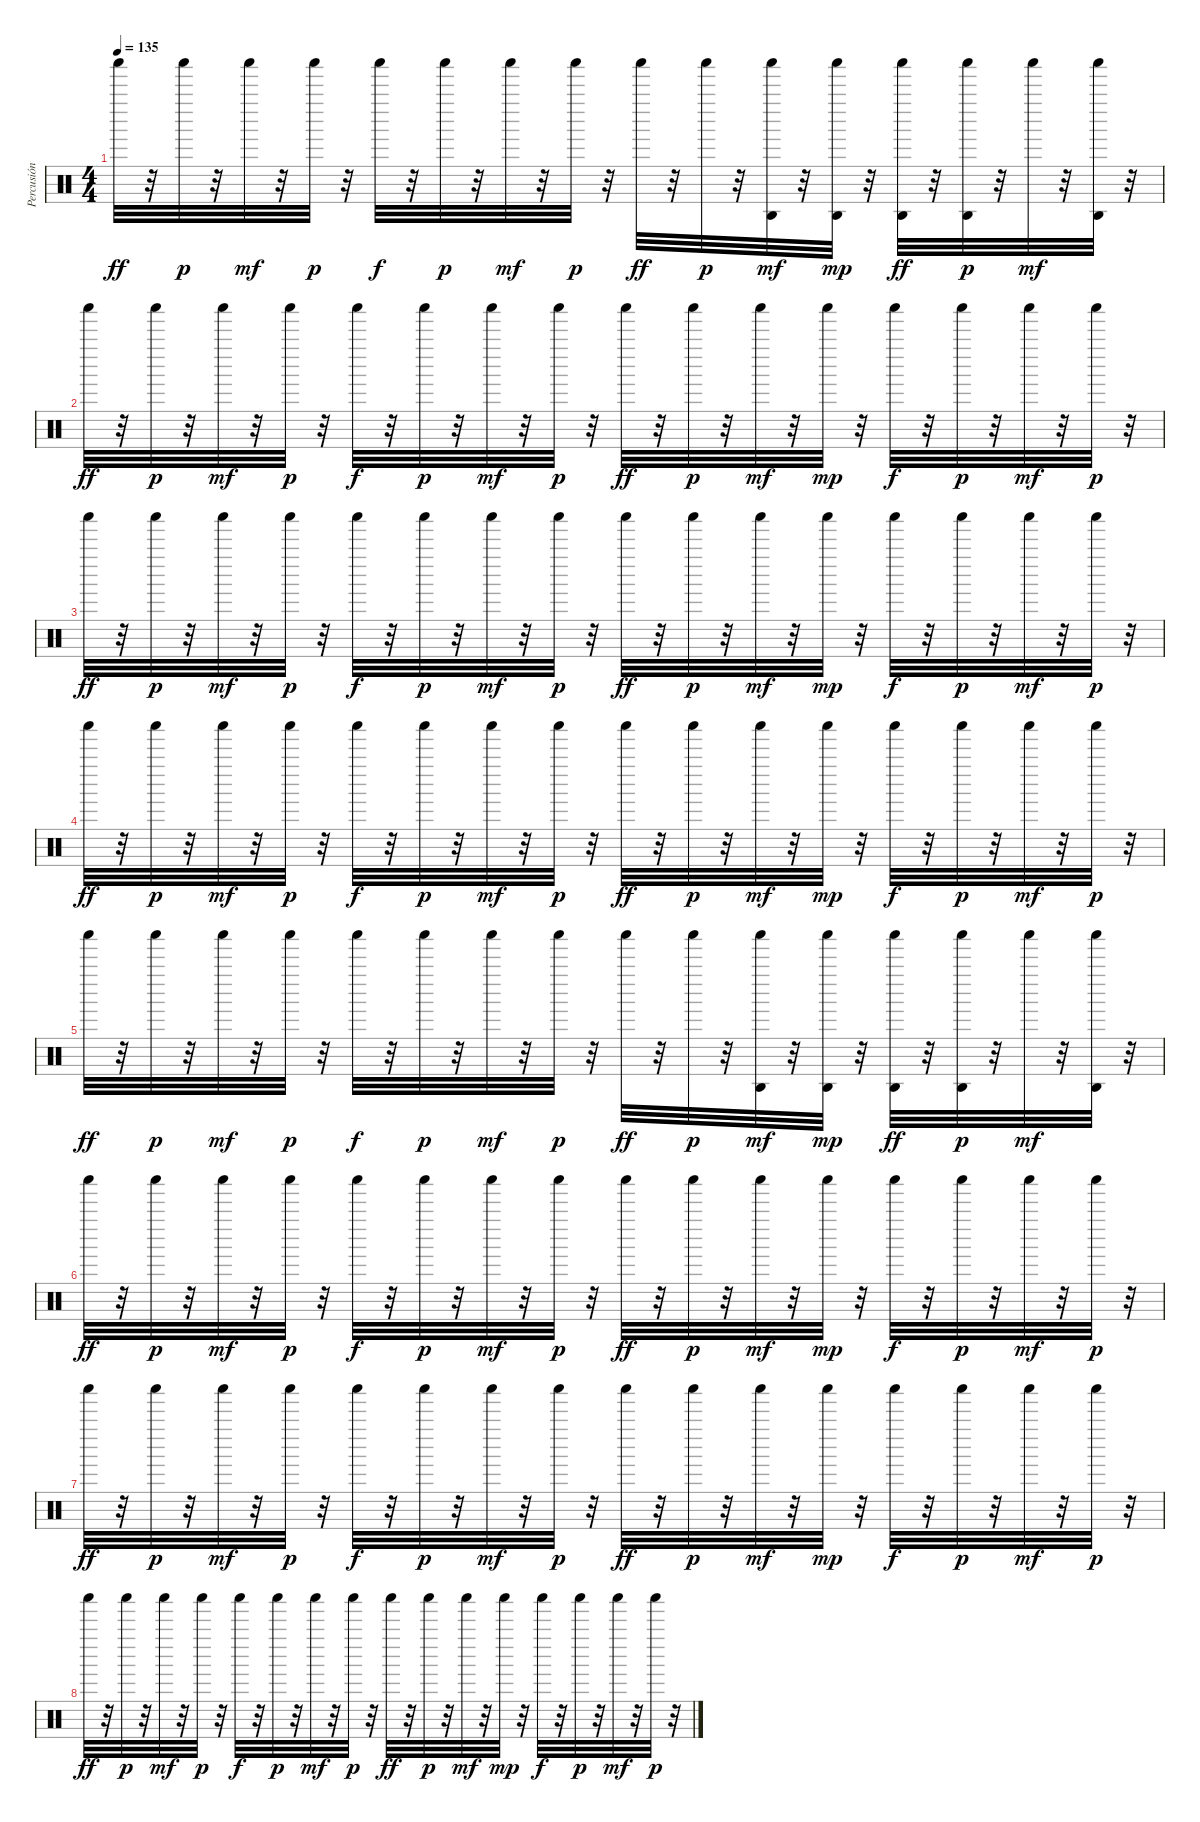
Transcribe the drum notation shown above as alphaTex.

\track ("Percusión" "Percusión") {instrument percussion}
\staff {score}
\articulation defaults
\ts (4 4)
\tempo 135
\clef neutral
\ks c "Shaker (hit)".32{dy ff}
r.32 "Shaker (hit)".32{dy p} r.32 "Shaker (hit)".32{dy mf} r.32 "Shaker (hit)".32{dy p} r.32 "Shaker (hit)".32{dy f} r.32 "Shaker (hit)".32{dy p} r.32 "Shaker (hit)".32{dy mf} r.32 "Shaker (hit)".32{dy p} r.32 "Shaker (hit)".32{dy ff} r.32 "Shaker (hit)".32{dy p} r.32 ("Agogo high (hit)" "Shaker (hit)").32{dy mf} r.32 ("Agogo high (hit)" "Shaker (hit)").32{dy mp} r.32 ("Agogo high (hit)" "Shaker (hit)").32{dy ff} r.32 ("Agogo high (hit)" "Shaker (hit)").32{dy p} r.32 "Shaker (hit)".32{dy mf} r.32 ("Shaker (hit)" "Agogo high (hit)").32 r.32 |
"Shaker (hit)".32{dy ff} r.32 "Shaker (hit)".32{dy p} r.32 "Shaker (hit)".32{dy mf} r.32 "Shaker (hit)".32{dy p} r.32 "Shaker (hit)".32{dy f} r.32 "Shaker (hit)".32{dy p} r.32 "Shaker (hit)".32{dy mf} r.32 "Shaker (hit)".32{dy p} r.32 "Shaker (hit)".32{dy ff} r.32 "Shaker (hit)".32{dy p} r.32 "Shaker (hit)".32{dy mf} r.32 "Shaker (hit)".32{dy mp} r.32 "Shaker (hit)".32{dy f} r.32 "Shaker (hit)".32{dy p} r.32 "Shaker (hit)".32{dy mf} r.32 "Shaker (hit)".32{dy p} r.32 |
"Shaker (hit)".32{dy ff} r.32 "Shaker (hit)".32{dy p} r.32 "Shaker (hit)".32{dy mf} r.32 "Shaker (hit)".32{dy p} r.32 "Shaker (hit)".32{dy f} r.32 "Shaker (hit)".32{dy p} r.32 "Shaker (hit)".32{dy mf} r.32 "Shaker (hit)".32{dy p} r.32 "Shaker (hit)".32{dy ff} r.32 "Shaker (hit)".32{dy p} r.32 "Shaker (hit)".32{dy mf} r.32 "Shaker (hit)".32{dy mp} r.32 "Shaker (hit)".32{dy f} r.32 "Shaker (hit)".32{dy p} r.32 "Shaker (hit)".32{dy mf} r.32 "Shaker (hit)".32{dy p} r.32 |
"Shaker (hit)".32{dy ff} r.32 "Shaker (hit)".32{dy p} r.32 "Shaker (hit)".32{dy mf} r.32 "Shaker (hit)".32{dy p} r.32 "Shaker (hit)".32{dy f} r.32 "Shaker (hit)".32{dy p} r.32 "Shaker (hit)".32{dy mf} r.32 "Shaker (hit)".32{dy p} r.32 "Shaker (hit)".32{dy ff} r.32 "Shaker (hit)".32{dy p} r.32 "Shaker (hit)".32{dy mf} r.32 "Shaker (hit)".32{dy mp} r.32 "Shaker (hit)".32{dy f} r.32 "Shaker (hit)".32{dy p} r.32 "Shaker (hit)".32{dy mf} r.32 "Shaker (hit)".32{dy p} r.32 |
"Shaker (hit)".32{dy ff} r.32 "Shaker (hit)".32{dy p} r.32 "Shaker (hit)".32{dy mf} r.32 "Shaker (hit)".32{dy p} r.32 "Shaker (hit)".32{dy f} r.32 "Shaker (hit)".32{dy p} r.32 "Shaker (hit)".32{dy mf} r.32 "Shaker (hit)".32{dy p} r.32 "Shaker (hit)".32{dy ff} r.32 "Shaker (hit)".32{dy p} r.32 ("Agogo high (hit)" "Shaker (hit)").32{dy mf} r.32 ("Agogo high (hit)" "Shaker (hit)").32{dy mp} r.32 ("Agogo high (hit)" "Shaker (hit)").32{dy ff} r.32 ("Agogo high (hit)" "Shaker (hit)").32{dy p} r.32 "Shaker (hit)".32{dy mf} r.32 ("Shaker (hit)" "Agogo high (hit)").32 r.32 |
"Shaker (hit)".32{dy ff} r.32 "Shaker (hit)".32{dy p} r.32 "Shaker (hit)".32{dy mf} r.32 "Shaker (hit)".32{dy p} r.32 "Shaker (hit)".32{dy f} r.32 "Shaker (hit)".32{dy p} r.32 "Shaker (hit)".32{dy mf} r.32 "Shaker (hit)".32{dy p} r.32 "Shaker (hit)".32{dy ff} r.32 "Shaker (hit)".32{dy p} r.32 "Shaker (hit)".32{dy mf} r.32 "Shaker (hit)".32{dy mp} r.32 "Shaker (hit)".32{dy f} r.32 "Shaker (hit)".32{dy p} r.32 "Shaker (hit)".32{dy mf} r.32 "Shaker (hit)".32{dy p} r.32 |
"Shaker (hit)".32{dy ff} r.32 "Shaker (hit)".32{dy p} r.32 "Shaker (hit)".32{dy mf} r.32 "Shaker (hit)".32{dy p} r.32 "Shaker (hit)".32{dy f} r.32 "Shaker (hit)".32{dy p} r.32 "Shaker (hit)".32{dy mf} r.32 "Shaker (hit)".32{dy p} r.32 "Shaker (hit)".32{dy ff} r.32 "Shaker (hit)".32{dy p} r.32 "Shaker (hit)".32{dy mf} r.32 "Shaker (hit)".32{dy mp} r.32 "Shaker (hit)".32{dy f} r.32 "Shaker (hit)".32{dy p} r.32 "Shaker (hit)".32{dy mf} r.32 "Shaker (hit)".32{dy p} r.32 |
"Shaker (hit)".32{dy ff} r.32 "Shaker (hit)".32{dy p} r.32 "Shaker (hit)".32{dy mf} r.32 "Shaker (hit)".32{dy p} r.32 "Shaker (hit)".32{dy f} r.32 "Shaker (hit)".32{dy p} r.32 "Shaker (hit)".32{dy mf} r.32 "Shaker (hit)".32{dy p} r.32 "Shaker (hit)".32{dy ff} r.32 "Shaker (hit)".32{dy p} r.32 "Shaker (hit)".32{dy mf} r.32 "Shaker (hit)".32{dy mp} r.32 "Shaker (hit)".32{dy f} r.32 "Shaker (hit)".32{dy p} r.32 "Shaker (hit)".32{dy mf} r.32 "Shaker (hit)".32{dy p} r.32
